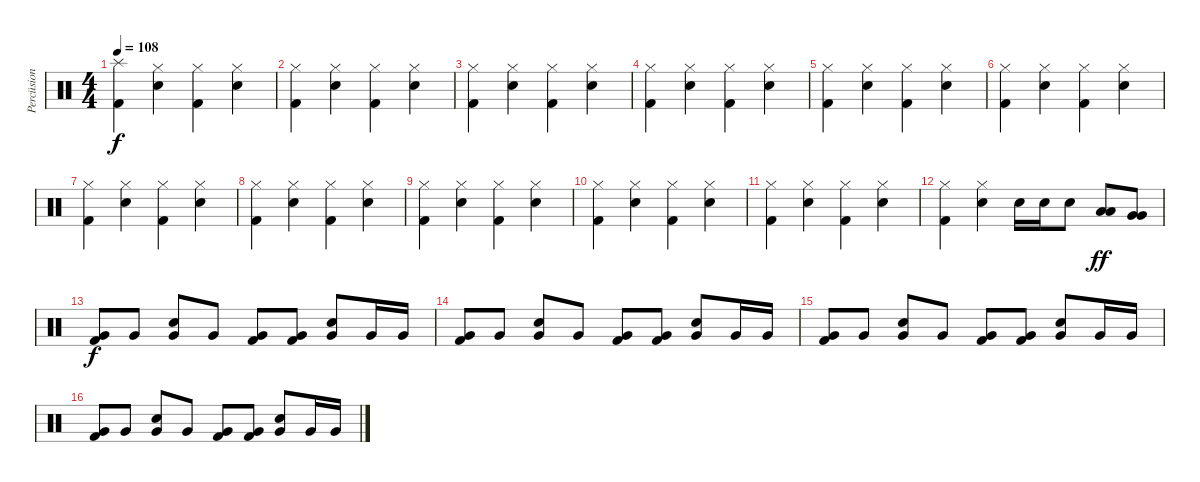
\track ("Percüsion" "Percüsion") {instrument percussion}
\staff {score}
\articulation defaults
\ts (4 4)
\tempo 108
\clef neutral
\ks c
("Splash (hit)" "Kick (hit) 2").4{dy f} ("Hi-Hat (closed)" "Snare (hit) 2").4 ("Hi-Hat (closed)" "Kick (hit) 2").4 ("Hi-Hat (closed)" "Snare (hit) 2").4 |
("Hi-Hat (closed)" "Kick (hit) 2").4 ("Hi-Hat (closed)" "Snare (hit) 2").4 ("Hi-Hat (closed)" "Kick (hit) 2").4 ("Hi-Hat (closed)" "Snare (hit) 2").4 |
("Hi-Hat (closed)" "Kick (hit) 2").4 ("Hi-Hat (closed)" "Snare (hit) 2").4 ("Hi-Hat (closed)" "Kick (hit) 2").4 ("Hi-Hat (closed)" "Snare (hit) 2").4 |
("Hi-Hat (closed)" "Kick (hit) 2").4 ("Hi-Hat (closed)" "Snare (hit) 2").4 ("Hi-Hat (closed)" "Kick (hit) 2").4 ("Hi-Hat (closed)" "Snare (hit) 2").4 |
("Hi-Hat (closed)" "Kick (hit) 2").4 ("Hi-Hat (closed)" "Snare (hit) 2").4 ("Hi-Hat (closed)" "Kick (hit) 2").4 ("Hi-Hat (closed)" "Snare (hit) 2").4 |
("Hi-Hat (closed)" "Kick (hit) 2").4 ("Hi-Hat (closed)" "Snare (hit) 2").4 ("Hi-Hat (closed)" "Kick (hit) 2").4 ("Hi-Hat (closed)" "Snare (hit) 2").4 |
("Hi-Hat (closed)" "Kick (hit) 2").4 ("Hi-Hat (closed)" "Snare (hit) 2").4 ("Hi-Hat (closed)" "Kick (hit) 2").4 ("Hi-Hat (closed)" "Snare (hit) 2").4 |
("Hi-Hat (closed)" "Kick (hit) 2").4 ("Hi-Hat (closed)" "Snare (hit) 2").4 ("Hi-Hat (closed)" "Kick (hit) 2").4 ("Hi-Hat (closed)" "Snare (hit) 2").4 |
("Hi-Hat (closed)" "Kick (hit) 2").4 ("Hi-Hat (closed)" "Snare (hit) 2").4 ("Hi-Hat (closed)" "Kick (hit) 2").4 ("Hi-Hat (closed)" "Snare (hit) 2").4 |
("Hi-Hat (closed)" "Kick (hit) 2").4 ("Hi-Hat (closed)" "Snare (hit) 2").4 ("Hi-Hat (closed)" "Kick (hit) 2").4 ("Hi-Hat (closed)" "Snare (hit) 2").4 |
("Hi-Hat (closed)" "Kick (hit) 2").4 ("Hi-Hat (closed)" "Snare (hit) 2").4 ("Hi-Hat (closed)" "Kick (hit) 2").4 ("Hi-Hat (closed)" "Snare (hit) 2").4 |
("Hi-Hat (closed)" "Kick (hit) 2").4 ("Hi-Hat (closed)" "Snare (hit) 2").4 "Snare (hit) 2".16 "Snare (hit) 2".16 "Snare (hit) 2".8 ("Low Tom (hit)" "Low Tom (hit)").8{dy ff} ("Very Low Tom (hit)" "Very Low Tom (hit)").8 |
("Very Low Tom (hit)" "Kick (hit) 2").8{dy f} "Very Low Tom (hit)".8 ("Snare (hit) 2" "Very Low Tom (hit)").8 "Very Low Tom (hit)".8 ("Very Low Tom (hit)" "Kick (hit) 2").8 ("Very Low Tom (hit)" "Kick (hit) 2").8 ("Snare (hit) 2" "Very Low Tom (hit)").8 "Very Low Tom (hit)".16 "Very Low Tom (hit)".16 |
("Very Low Tom (hit)" "Kick (hit) 2").8 "Very Low Tom (hit)".8 ("Snare (hit) 2" "Very Low Tom (hit)").8 "Very Low Tom (hit)".8 ("Very Low Tom (hit)" "Kick (hit) 2").8 ("Very Low Tom (hit)" "Kick (hit) 2").8 ("Snare (hit) 2" "Very Low Tom (hit)").8 "Very Low Tom (hit)".16 "Very Low Tom (hit)".16 |
("Very Low Tom (hit)" "Kick (hit) 2").8 "Very Low Tom (hit)".8 ("Snare (hit) 2" "Very Low Tom (hit)").8 "Very Low Tom (hit)".8 ("Very Low Tom (hit)" "Kick (hit) 2").8 ("Very Low Tom (hit)" "Kick (hit) 2").8 ("Snare (hit) 2" "Very Low Tom (hit)").8 "Very Low Tom (hit)".16 "Very Low Tom (hit)".16 |
("Very Low Tom (hit)" "Kick (hit) 2").8 "Very Low Tom (hit)".8 ("Snare (hit) 2" "Very Low Tom (hit)").8 "Very Low Tom (hit)".8 ("Very Low Tom (hit)" "Kick (hit) 2").8 ("Very Low Tom (hit)" "Kick (hit) 2").8 ("Snare (hit) 2" "Very Low Tom (hit)").8 "Very Low Tom (hit)".16 "Very Low Tom (hit)".16
